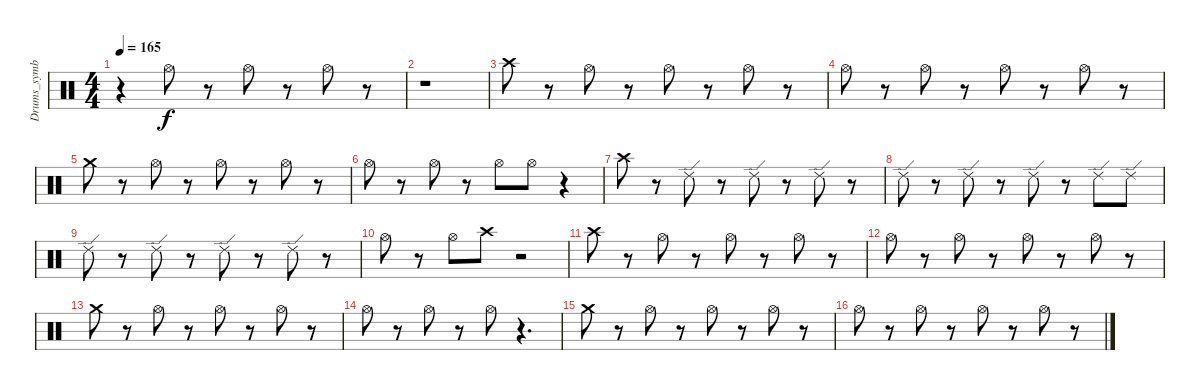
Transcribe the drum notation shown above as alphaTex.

\track ("Drums_symbal" "Drums_symb") {instrument percussion}
\staff {score}
\articulation defaults
\ts (4 4)
\tempo 165
\clef neutral
\ks c
r.4{dy f} "Hi-Hat (open)".8 r.8 "Hi-Hat (open)".8 r.8 "Hi-Hat (open)".8 r.8 |
r.1 |
"Crash high (hit)".8 r.8 "Hi-Hat (open)".8 r.8 "Hi-Hat (open)".8 r.8 "Hi-Hat (open)".8 r.8 |
"Hi-Hat (open)".8 r.8 "Hi-Hat (open)".8 r.8 "Hi-Hat (open)".8 r.8 "Hi-Hat (open)".8 r.8 |
"Crash medium (hit)".8 r.8 "Hi-Hat (open)".8 r.8 "Hi-Hat (open)".8 r.8 "Hi-Hat (open)".8 r.8 |
"Hi-Hat (open)".8 r.8 "Hi-Hat (open)".8 r.8 "Hi-Hat (open)".8 "Hi-Hat (open)".8 r.4 |
"Crash high (hit)".8 r.8 "Ride (edge) 2".8 r.8 "Ride (edge) 2".8 r.8 "Ride (edge) 2".8 r.8 |
"Ride (edge) 2".8 r.8 "Ride (edge) 2".8 r.8 "Ride (edge) 2".8 r.8 "Ride (edge) 2".8 "Ride (edge) 2".8 |
"Ride (edge) 2".8 r.8 "Ride (edge) 2".8 r.8 "Ride (edge) 2".8 r.8 "Ride (edge) 2".8 r.8 |
"Hi-Hat (open)".8 r.8 "Hi-Hat (open)".8 "Crash high (hit)".8 r.2 |
"Crash high (hit)".8 r.8 "Hi-Hat (open)".8 r.8 "Hi-Hat (open)".8 r.8 "Hi-Hat (open)".8 r.8 |
"Hi-Hat (open)".8 r.8 "Hi-Hat (open)".8 r.8 "Hi-Hat (open)".8 r.8 "Hi-Hat (open)".8 r.8 |
"Crash medium (hit)".8 r.8 "Hi-Hat (open)".8 r.8 "Hi-Hat (open)".8 r.8 "Hi-Hat (open)".8 r.8 |
"Hi-Hat (open)".8 r.8 "Hi-Hat (open)".8 r.8 "Hi-Hat (open)".8 r.4{d} |
"Crash medium (hit)".8 r.8 "Hi-Hat (open)".8 r.8 "Hi-Hat (open)".8 r.8 "Hi-Hat (open)".8 r.8 |
"Hi-Hat (open)".8 r.8 "Hi-Hat (open)".8 r.8 "Hi-Hat (open)".8 r.8 "Hi-Hat (open)".8 r.8
